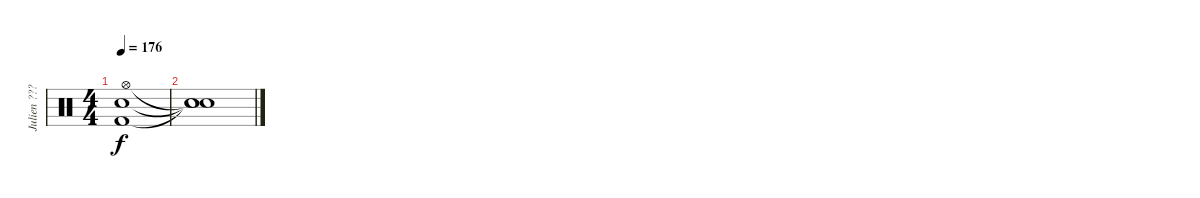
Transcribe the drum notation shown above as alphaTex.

\track ("Julien ??? (Drum)" "Julien ???") {instrument percussion}
\staff {score}
\articulation defaults
\ts (4 4)
\tempo 176
\clef neutral
\ks c
("Kick (hit) 2"{t} "Hi-Hat (open)"{t} "Electric Snare (hit)"{t}).1{dy f} |
("Snare (hit)"{t} "Snare (hit)"{t} "Snare (hit)"{t}).1
